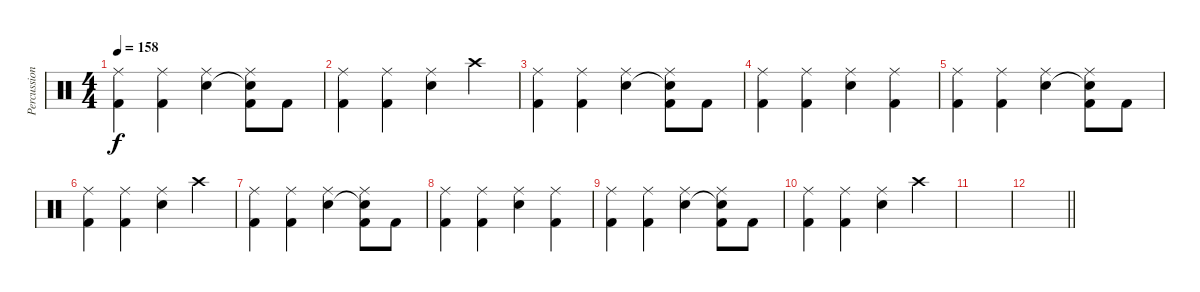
\track ("Percussions" "Percussion") {instrument percussion}
\staff {score}
\articulation defaults
\ts (4 4)
\tempo 158
\clef neutral
\ks c
("Ride (middle)" "Kick (hit) 2").4{dy f} ("Ride (middle)" "Kick (hit) 2").4 ("Ride (middle)" "Electric Snare (hit)").4 ("Ride (middle)" "Snare (hit)"{t} "Kick (hit) 2").8 "Kick (hit) 2".8 |
("Ride (middle)" "Kick (hit) 2").4 ("Ride (middle)" "Kick (hit) 2").4 ("Ride (middle)" "Electric Snare (hit)").4 "Crash high (hit)".4 |
("Ride (middle)" "Kick (hit) 2").4 ("Ride (middle)" "Kick (hit) 2").4 ("Ride (middle)" "Electric Snare (hit)").4 ("Ride (middle)" "Snare (hit)"{t} "Kick (hit) 2").8 "Kick (hit) 2".8 |
("Ride (middle)" "Kick (hit) 2").4 ("Ride (middle)" "Kick (hit) 2").4 ("Ride (middle)" "Electric Snare (hit)").4 ("Ride (middle)" "Kick (hit) 2").4 |
("Ride (middle)" "Kick (hit) 2").4 ("Ride (middle)" "Kick (hit) 2").4 ("Ride (middle)" "Electric Snare (hit)").4 ("Ride (middle)" "Snare (hit)"{t} "Kick (hit) 2").8 "Kick (hit) 2".8 |
("Ride (middle)" "Kick (hit) 2").4 ("Ride (middle)" "Kick (hit) 2").4 ("Ride (middle)" "Electric Snare (hit)").4 "Crash high (hit)".4 |
("Ride (middle)" "Kick (hit) 2").4 ("Ride (middle)" "Kick (hit) 2").4 ("Ride (middle)" "Electric Snare (hit)").4 ("Ride (middle)" "Snare (hit)"{t} "Kick (hit) 2").8 "Kick (hit) 2".8 |
("Ride (middle)" "Kick (hit) 2").4 ("Ride (middle)" "Kick (hit) 2").4 ("Ride (middle)" "Electric Snare (hit)").4 ("Ride (middle)" "Kick (hit) 2").4 |
("Ride (middle)" "Kick (hit) 2").4 ("Ride (middle)" "Kick (hit) 2").4 ("Ride (middle)" "Electric Snare (hit)").4 ("Ride (middle)" "Snare (hit)"{t} "Kick (hit) 2").8 "Kick (hit) 2".8 |
("Ride (middle)" "Kick (hit) 2").4 ("Ride (middle)" "Kick (hit) 2").4 ("Ride (middle)" "Electric Snare (hit)").4 "Crash high (hit)".4 |
|
\barLineRight lightlight
